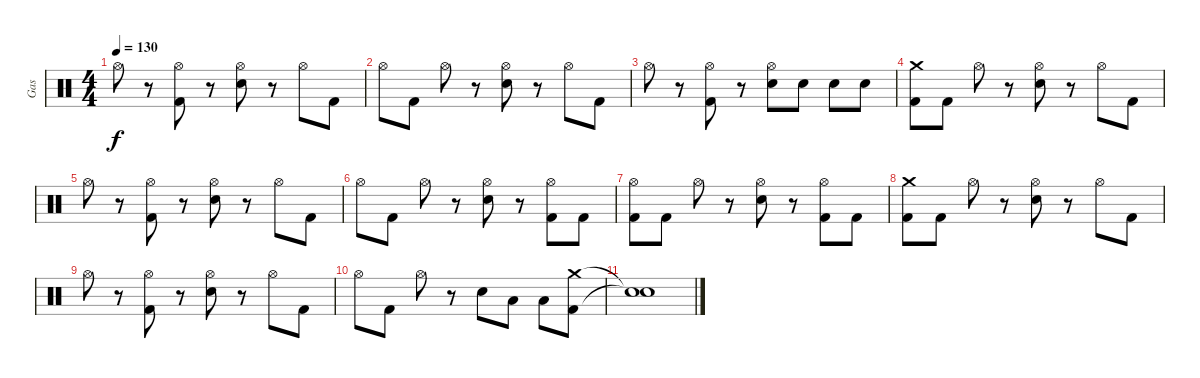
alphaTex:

\track ("Gas" "Gas") {instrument percussion}
\staff {score}
\articulation defaults
\ts (4 4)
\tempo 130
\clef neutral
\ks c "Hi-Hat (open)".8{dy f}
r.8 ("Hi-Hat (open)" "Kick (hit) 2").8 r.8 ("Hi-Hat (open)" "Electric Snare (hit)").8 r.8 "Hi-Hat (open)".8 "Kick (hit) 2".8 |
"Hi-Hat (open)".8 "Kick (hit) 2".8 "Hi-Hat (open)".8 r.8 ("Hi-Hat (open)" "Electric Snare (hit)").8 r.8 "Hi-Hat (open)".8 "Kick (hit) 2".8 |
"Hi-Hat (open)".8 r.8 ("Hi-Hat (open)" "Kick (hit) 2").8 r.8 ("Hi-Hat (open)" "Electric Snare (hit)").8 "Electric Snare (hit)".8 "Electric Snare (hit)".8 "Electric Snare (hit)".8 |
("Crash medium (hit)" "Kick (hit) 2").8 "Kick (hit) 2".8 "Hi-Hat (open)".8 r.8 ("Hi-Hat (open)" "Electric Snare (hit)").8 r.8 "Hi-Hat (open)".8 "Kick (hit) 2".8 |
"Hi-Hat (open)".8 r.8 ("Hi-Hat (open)" "Kick (hit) 2").8 r.8 ("Hi-Hat (open)" "Electric Snare (hit)").8 r.8 "Hi-Hat (open)".8 "Kick (hit) 2".8 |
"Hi-Hat (open)".8 "Kick (hit) 2".8 "Hi-Hat (open)".8 r.8 ("Hi-Hat (open)" "Electric Snare (hit)").8 r.8 ("Hi-Hat (open)" "Kick (hit) 2").8 "Kick (hit) 2".8 |
("Hi-Hat (open)" "Kick (hit) 2").8 "Kick (hit) 2".8 "Hi-Hat (open)".8 r.8 ("Hi-Hat (open)" "Electric Snare (hit)").8 r.8 ("Hi-Hat (open)" "Kick (hit) 2").8 "Kick (hit) 2".8 |
("Crash medium (hit)" "Kick (hit) 2").8 "Kick (hit) 2".8 "Hi-Hat (open)".8 r.8 ("Hi-Hat (open)" "Electric Snare (hit)").8 r.8 "Hi-Hat (open)".8 "Kick (hit) 2".8 |
"Hi-Hat (open)".8 r.8 ("Hi-Hat (open)" "Kick (hit) 2").8 r.8 ("Hi-Hat (open)" "Electric Snare (hit)").8 r.8 "Hi-Hat (open)".8 "Kick (hit) 2".8 |
"Hi-Hat (open)".8 "Kick (hit) 2".8 "Hi-Hat (open)".8 r.8 "Electric Snare (hit)".8 "Low Tom (hit)".8 "Low Tom (hit)".8 ("Crash medium (hit)" "Kick (hit) 2").8 |
("Snare (hit)"{t} "Snare (hit)"{t}).1
